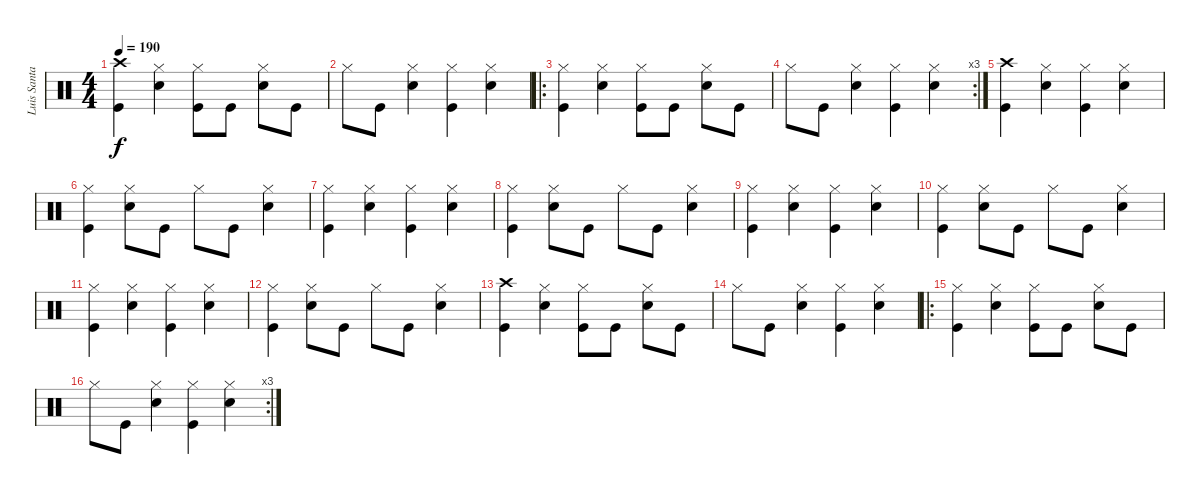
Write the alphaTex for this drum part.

\track ("Luis Santamarina - Batería" "Luis Santa") {instrument percussion}
\staff {score}
\articulation defaults
\ts (4 4)
\tempo 190
\clef neutral
\ks c
("Crash high (hit)" "Kick (hit)").4{dy f} ("Hi-Hat (closed)" "Electric Snare (hit)").4 ("Hi-Hat (closed)" "Kick (hit)").8 "Kick (hit)".8 ("Hi-Hat (closed)" "Electric Snare (hit)").8 "Kick (hit)".8 |
"Hi-Hat (closed)".8 "Kick (hit)".8 ("Hi-Hat (closed)" "Electric Snare (hit)").4 ("Hi-Hat (closed)" "Kick (hit)").4 ("Hi-Hat (closed)" "Electric Snare (hit)").4 |
\ro
("Hi-Hat (closed)" "Kick (hit)").4 ("Hi-Hat (closed)" "Electric Snare (hit)").4 ("Hi-Hat (closed)" "Kick (hit)").8 "Kick (hit)".8 ("Hi-Hat (closed)" "Electric Snare (hit)").8 "Kick (hit)".8 |
\rc 3 "Hi-Hat (closed)".8 "Kick (hit)".8
("Hi-Hat (closed)" "Electric Snare (hit)").4 ("Hi-Hat (closed)" "Kick (hit)").4 ("Hi-Hat (closed)" "Electric Snare (hit)").4 |
("Crash high (hit)" "Kick (hit)").4 ("Hi-Hat (closed)" "Electric Snare (hit)").4 ("Hi-Hat (closed)" "Kick (hit)").4 ("Hi-Hat (closed)" "Electric Snare (hit)").4 |
("Hi-Hat (closed)" "Kick (hit)").4 ("Hi-Hat (closed)" "Electric Snare (hit)").8 "Kick (hit)".8 "Hi-Hat (closed)".8 "Kick (hit)".8 ("Hi-Hat (closed)" "Electric Snare (hit)").4 |
("Hi-Hat (closed)" "Kick (hit)").4 ("Hi-Hat (closed)" "Electric Snare (hit)").4 ("Hi-Hat (closed)" "Kick (hit)").4 ("Hi-Hat (closed)" "Electric Snare (hit)").4 |
("Hi-Hat (closed)" "Kick (hit)").4 ("Hi-Hat (closed)" "Electric Snare (hit)").8 "Kick (hit)".8 "Hi-Hat (closed)".8 "Kick (hit)".8 ("Hi-Hat (closed)" "Electric Snare (hit)").4 |
("Hi-Hat (closed)" "Kick (hit)").4 ("Hi-Hat (closed)" "Electric Snare (hit)").4 ("Hi-Hat (closed)" "Kick (hit)").4 ("Hi-Hat (closed)" "Electric Snare (hit)").4 |
("Hi-Hat (closed)" "Kick (hit)").4 ("Hi-Hat (closed)" "Electric Snare (hit)").8 "Kick (hit)".8 "Hi-Hat (closed)".8 "Kick (hit)".8 ("Hi-Hat (closed)" "Electric Snare (hit)").4 |
("Hi-Hat (closed)" "Kick (hit)").4 ("Hi-Hat (closed)" "Electric Snare (hit)").4 ("Hi-Hat (closed)" "Kick (hit)").4 ("Hi-Hat (closed)" "Electric Snare (hit)").4 |
("Hi-Hat (closed)" "Kick (hit)").4 ("Hi-Hat (closed)" "Electric Snare (hit)").8 "Kick (hit)".8 "Hi-Hat (closed)".8 "Kick (hit)".8 ("Hi-Hat (closed)" "Electric Snare (hit)").4 |
("Crash high (hit)" "Kick (hit)").4 ("Hi-Hat (closed)" "Electric Snare (hit)").4 ("Hi-Hat (closed)" "Kick (hit)").8 "Kick (hit)".8 ("Hi-Hat (closed)" "Electric Snare (hit)").8 "Kick (hit)".8 |
"Hi-Hat (closed)".8 "Kick (hit)".8 ("Hi-Hat (closed)" "Electric Snare (hit)").4 ("Hi-Hat (closed)" "Kick (hit)").4 ("Hi-Hat (closed)" "Electric Snare (hit)").4 |
\ro
("Hi-Hat (closed)" "Kick (hit)").4 ("Hi-Hat (closed)" "Electric Snare (hit)").4 ("Hi-Hat (closed)" "Kick (hit)").8 "Kick (hit)".8 ("Hi-Hat (closed)" "Electric Snare (hit)").8 "Kick (hit)".8 |
\rc 3 "Hi-Hat (closed)".8 "Kick (hit)".8
("Hi-Hat (closed)" "Electric Snare (hit)").4 ("Hi-Hat (closed)" "Kick (hit)").4 ("Hi-Hat (closed)" "Electric Snare (hit)").4
